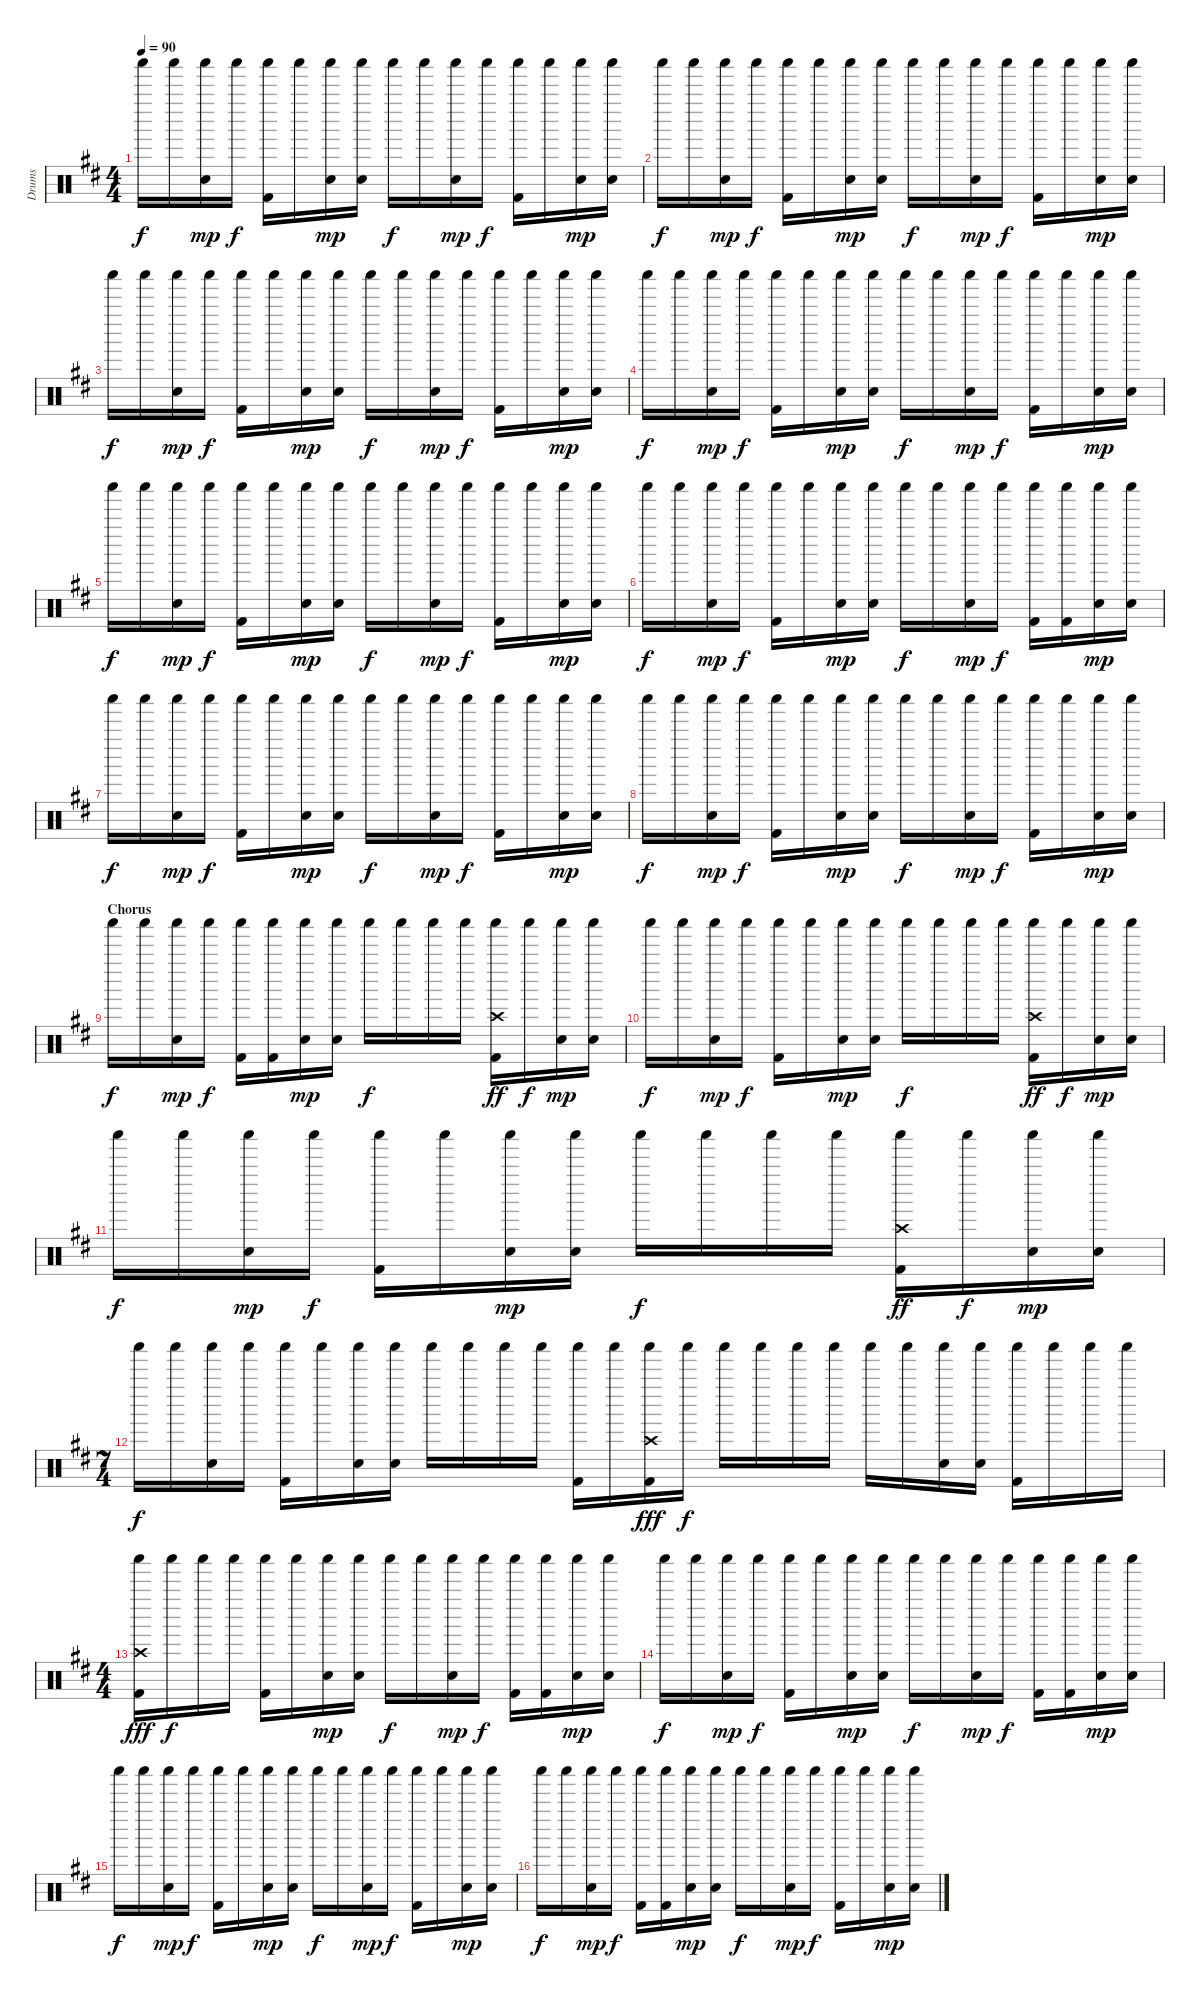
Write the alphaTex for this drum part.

\track ("Drums" "Drums") {instrument percussion}
\staff {score}
\articulation defaults
\ts (4 4)
\tempo 90
\clef neutral
\ks bminor "Shaker (hit)".16{dy f} "Shaker (hit)".16
("Shaker (hit)" "Electric Snare (hit)").16{dy mp} "Shaker (hit)".16{dy f} ("Shaker (hit)" "Kick (hit) 2").16 "Shaker (hit)".16 ("Shaker (hit)" "Electric Snare (hit)").16{dy mp} ("Shaker (hit)" "Electric Snare (hit)").16 "Shaker (hit)".16{dy f} "Shaker (hit)".16 ("Shaker (hit)" "Electric Snare (hit)").16{dy mp} "Shaker (hit)".16{dy f} ("Shaker (hit)" "Kick (hit) 2").16 "Shaker (hit)".16 ("Shaker (hit)" "Electric Snare (hit)").16{dy mp} ("Shaker (hit)" "Electric Snare (hit)").16 |
"Shaker (hit)".16{dy f} "Shaker (hit)".16 ("Shaker (hit)" "Electric Snare (hit)").16{dy mp} "Shaker (hit)".16{dy f} ("Shaker (hit)" "Kick (hit) 2").16 "Shaker (hit)".16 ("Shaker (hit)" "Electric Snare (hit)").16{dy mp} ("Shaker (hit)" "Electric Snare (hit)").16 "Shaker (hit)".16{dy f} "Shaker (hit)".16 ("Shaker (hit)" "Electric Snare (hit)").16{dy mp} "Shaker (hit)".16{dy f} ("Shaker (hit)" "Kick (hit) 2").16 "Shaker (hit)".16 ("Shaker (hit)" "Electric Snare (hit)").16{dy mp} ("Shaker (hit)" "Electric Snare (hit)").16 |
"Shaker (hit)".16{dy f} "Shaker (hit)".16 ("Shaker (hit)" "Electric Snare (hit)").16{dy mp} "Shaker (hit)".16{dy f} ("Shaker (hit)" "Kick (hit) 2").16 "Shaker (hit)".16 ("Shaker (hit)" "Electric Snare (hit)").16{dy mp} ("Shaker (hit)" "Electric Snare (hit)").16 "Shaker (hit)".16{dy f} "Shaker (hit)".16 ("Shaker (hit)" "Electric Snare (hit)").16{dy mp} "Shaker (hit)".16{dy f} ("Shaker (hit)" "Kick (hit) 2").16 "Shaker (hit)".16 ("Shaker (hit)" "Electric Snare (hit)").16{dy mp} ("Shaker (hit)" "Electric Snare (hit)").16 |
"Shaker (hit)".16{dy f} "Shaker (hit)".16 ("Shaker (hit)" "Electric Snare (hit)").16{dy mp} "Shaker (hit)".16{dy f} ("Shaker (hit)" "Kick (hit) 2").16 "Shaker (hit)".16 ("Shaker (hit)" "Electric Snare (hit)").16{dy mp} ("Shaker (hit)" "Electric Snare (hit)").16 "Shaker (hit)".16{dy f} "Shaker (hit)".16 ("Shaker (hit)" "Electric Snare (hit)").16{dy mp} "Shaker (hit)".16{dy f} ("Shaker (hit)" "Kick (hit) 2").16 "Shaker (hit)".16 ("Shaker (hit)" "Electric Snare (hit)").16{dy mp} ("Shaker (hit)" "Electric Snare (hit)").16 |
"Shaker (hit)".16{dy f} "Shaker (hit)".16 ("Shaker (hit)" "Electric Snare (hit)").16{dy mp} "Shaker (hit)".16{dy f} ("Shaker (hit)" "Kick (hit) 2").16 "Shaker (hit)".16 ("Shaker (hit)" "Electric Snare (hit)").16{dy mp} ("Shaker (hit)" "Electric Snare (hit)").16 "Shaker (hit)".16{dy f} "Shaker (hit)".16 ("Shaker (hit)" "Electric Snare (hit)").16{dy mp} "Shaker (hit)".16{dy f} ("Shaker (hit)" "Kick (hit) 2").16 "Shaker (hit)".16 ("Shaker (hit)" "Electric Snare (hit)").16{dy mp} ("Shaker (hit)" "Electric Snare (hit)").16 |
"Shaker (hit)".16{dy f} "Shaker (hit)".16 ("Shaker (hit)" "Electric Snare (hit)").16{dy mp} "Shaker (hit)".16{dy f} ("Shaker (hit)" "Kick (hit) 2").16 "Shaker (hit)".16 ("Shaker (hit)" "Electric Snare (hit)").16{dy mp} ("Shaker (hit)" "Electric Snare (hit)").16 "Shaker (hit)".16{dy f} "Shaker (hit)".16 ("Shaker (hit)" "Electric Snare (hit)").16{dy mp} "Shaker (hit)".16{dy f} ("Shaker (hit)" "Kick (hit) 2").16 ("Shaker (hit)" "Kick (hit) 2").16 ("Shaker (hit)" "Electric Snare (hit)").16{dy mp} ("Shaker (hit)" "Electric Snare (hit)").16 |
"Shaker (hit)".16{dy f} "Shaker (hit)".16 ("Shaker (hit)" "Electric Snare (hit)").16{dy mp} "Shaker (hit)".16{dy f} ("Shaker (hit)" "Kick (hit) 2").16 "Shaker (hit)".16 ("Shaker (hit)" "Electric Snare (hit)").16{dy mp} ("Shaker (hit)" "Electric Snare (hit)").16 "Shaker (hit)".16{dy f} "Shaker (hit)".16 ("Shaker (hit)" "Electric Snare (hit)").16{dy mp} "Shaker (hit)".16{dy f} ("Shaker (hit)" "Kick (hit) 2").16 "Shaker (hit)".16 ("Shaker (hit)" "Electric Snare (hit)").16{dy mp} ("Shaker (hit)" "Electric Snare (hit)").16 |
"Shaker (hit)".16{dy f} "Shaker (hit)".16 ("Shaker (hit)" "Electric Snare (hit)").16{dy mp} "Shaker (hit)".16{dy f} ("Shaker (hit)" "Kick (hit) 2").16 "Shaker (hit)".16 ("Shaker (hit)" "Electric Snare (hit)").16{dy mp} ("Shaker (hit)" "Electric Snare (hit)").16 "Shaker (hit)".16{dy f} "Shaker (hit)".16 ("Shaker (hit)" "Electric Snare (hit)").16{dy mp} "Shaker (hit)".16{dy f} ("Shaker (hit)" "Kick (hit) 2").16 "Shaker (hit)".16 ("Shaker (hit)" "Electric Snare (hit)").16{dy mp} ("Shaker (hit)" "Electric Snare (hit)").16 |
\section ("" "Chorus")
"Shaker (hit)".16{dy f} "Shaker (hit)".16 ("Shaker (hit)" "Electric Snare (hit)").16{dy mp} "Shaker (hit)".16{dy f} ("Shaker (hit)" "Kick (hit) 2").16 ("Shaker (hit)" "Kick (hit) 2").16 ("Shaker (hit)" "Electric Snare (hit)").16{dy mp} ("Shaker (hit)" "Electric Snare (hit)").16 "Shaker (hit)".16{dy f} "Shaker (hit)".16 "Shaker (hit)".16 "Shaker (hit)".16 ("Shaker (hit)" "Crash high (hit)" "Kick (hit) 2").16{dy ff} "Shaker (hit)".16{dy f} ("Shaker (hit)" "Electric Snare (hit)").16{dy mp} ("Shaker (hit)" "Electric Snare (hit)").16 |
"Shaker (hit)".16{dy f} "Shaker (hit)".16 ("Shaker (hit)" "Electric Snare (hit)").16{dy mp} "Shaker (hit)".16{dy f} ("Shaker (hit)" "Kick (hit) 2").16 "Shaker (hit)".16 ("Shaker (hit)" "Electric Snare (hit)").16{dy mp} ("Shaker (hit)" "Electric Snare (hit)").16 "Shaker (hit)".16{dy f} "Shaker (hit)".16 "Shaker (hit)".16 "Shaker (hit)".16 ("Shaker (hit)" "Crash high (hit)" "Kick (hit) 2").16{dy ff} "Shaker (hit)".16{dy f} ("Shaker (hit)" "Electric Snare (hit)").16{dy mp} ("Shaker (hit)" "Electric Snare (hit)").16 |
"Shaker (hit)".16{dy f} "Shaker (hit)".16 ("Shaker (hit)" "Electric Snare (hit)").16{dy mp} "Shaker (hit)".16{dy f} ("Shaker (hit)" "Kick (hit) 2").16 "Shaker (hit)".16 ("Shaker (hit)" "Electric Snare (hit)").16{dy mp} ("Shaker (hit)" "Electric Snare (hit)").16 "Shaker (hit)".16{dy f} "Shaker (hit)".16 "Shaker (hit)".16 "Shaker (hit)".16 ("Shaker (hit)" "Crash high (hit)" "Kick (hit) 2").16{dy ff} "Shaker (hit)".16{dy f} ("Shaker (hit)" "Electric Snare (hit)").16{dy mp} ("Shaker (hit)" "Electric Snare (hit)").16 |
\ts (7 4)
"Shaker (hit)".16{dy f} "Shaker (hit)".16 ("Shaker (hit)" "Electric Snare (hit)").16 "Shaker (hit)".16 ("Shaker (hit)" "Kick (hit) 2").16 "Shaker (hit)".16 ("Shaker (hit)" "Electric Snare (hit)").16 ("Shaker (hit)" "Electric Snare (hit)").16 "Shaker (hit)".16 "Shaker (hit)".16 "Shaker (hit)".16 "Shaker (hit)".16 ("Shaker (hit)" "Kick (hit) 2").16 "Shaker (hit)".16 ("Shaker (hit)" "Crash high (hit)" "Kick (hit) 2").16{dy fff} "Shaker (hit)".16{dy f} "Shaker (hit)".16 "Shaker (hit)".16 "Shaker (hit)".16 "Shaker (hit)".16 "Shaker (hit)".16 "Shaker (hit)".16 ("Shaker (hit)" "Electric Snare (hit)").16 ("Shaker (hit)" "Electric Snare (hit)").16 ("Shaker (hit)" "Kick (hit) 2").16 "Shaker (hit)".16 "Shaker (hit)".16 "Shaker (hit)".16 |
\ts (4 4)
("Shaker (hit)" "Crash high (hit)" "Kick (hit) 2").16{dy fff} "Shaker (hit)".16{dy f} "Shaker (hit)".16 "Shaker (hit)".16 ("Shaker (hit)" "Kick (hit) 2").16 "Shaker (hit)".16 ("Shaker (hit)" "Electric Snare (hit)").16{dy mp} ("Shaker (hit)" "Electric Snare (hit)").16 "Shaker (hit)".16{dy f} "Shaker (hit)".16 ("Shaker (hit)" "Electric Snare (hit)").16{dy mp} "Shaker (hit)".16{dy f} ("Shaker (hit)" "Kick (hit) 2").16 ("Shaker (hit)" "Kick (hit) 2").16 ("Shaker (hit)" "Electric Snare (hit)").16{dy mp} ("Shaker (hit)" "Electric Snare (hit)").16 |
"Shaker (hit)".16{dy f} "Shaker (hit)".16 ("Shaker (hit)" "Electric Snare (hit)").16{dy mp} "Shaker (hit)".16{dy f} ("Shaker (hit)" "Kick (hit) 2").16 "Shaker (hit)".16 ("Shaker (hit)" "Electric Snare (hit)").16{dy mp} ("Shaker (hit)" "Electric Snare (hit)").16 "Shaker (hit)".16{dy f} "Shaker (hit)".16 ("Shaker (hit)" "Electric Snare (hit)").16{dy mp} "Shaker (hit)".16{dy f} ("Shaker (hit)" "Kick (hit) 2").16 ("Shaker (hit)" "Kick (hit) 2").16 ("Shaker (hit)" "Electric Snare (hit)").16{dy mp} ("Shaker (hit)" "Electric Snare (hit)").16 |
"Shaker (hit)".16{dy f} "Shaker (hit)".16 ("Shaker (hit)" "Electric Snare (hit)").16{dy mp} "Shaker (hit)".16{dy f} ("Shaker (hit)" "Kick (hit) 2").16 "Shaker (hit)".16 ("Shaker (hit)" "Electric Snare (hit)").16{dy mp} ("Shaker (hit)" "Electric Snare (hit)").16 "Shaker (hit)".16{dy f} "Shaker (hit)".16 ("Shaker (hit)" "Electric Snare (hit)").16{dy mp} "Shaker (hit)".16{dy f} ("Shaker (hit)" "Kick (hit) 2").16 "Shaker (hit)".16 ("Shaker (hit)" "Electric Snare (hit)").16{dy mp} ("Shaker (hit)" "Electric Snare (hit)").16 |
"Shaker (hit)".16{dy f} "Shaker (hit)".16 ("Shaker (hit)" "Electric Snare (hit)").16{dy mp} "Shaker (hit)".16{dy f} ("Shaker (hit)" "Kick (hit) 2").16 ("Shaker (hit)" "Kick (hit) 2").16 ("Shaker (hit)" "Electric Snare (hit)").16{dy mp} ("Shaker (hit)" "Electric Snare (hit)").16 "Shaker (hit)".16{dy f} "Shaker (hit)".16 ("Shaker (hit)" "Electric Snare (hit)").16{dy mp} "Shaker (hit)".16{dy f} ("Shaker (hit)" "Kick (hit) 2").16 "Shaker (hit)".16 ("Shaker (hit)" "Electric Snare (hit)").16{dy mp} ("Shaker (hit)" "Electric Snare (hit)").16
